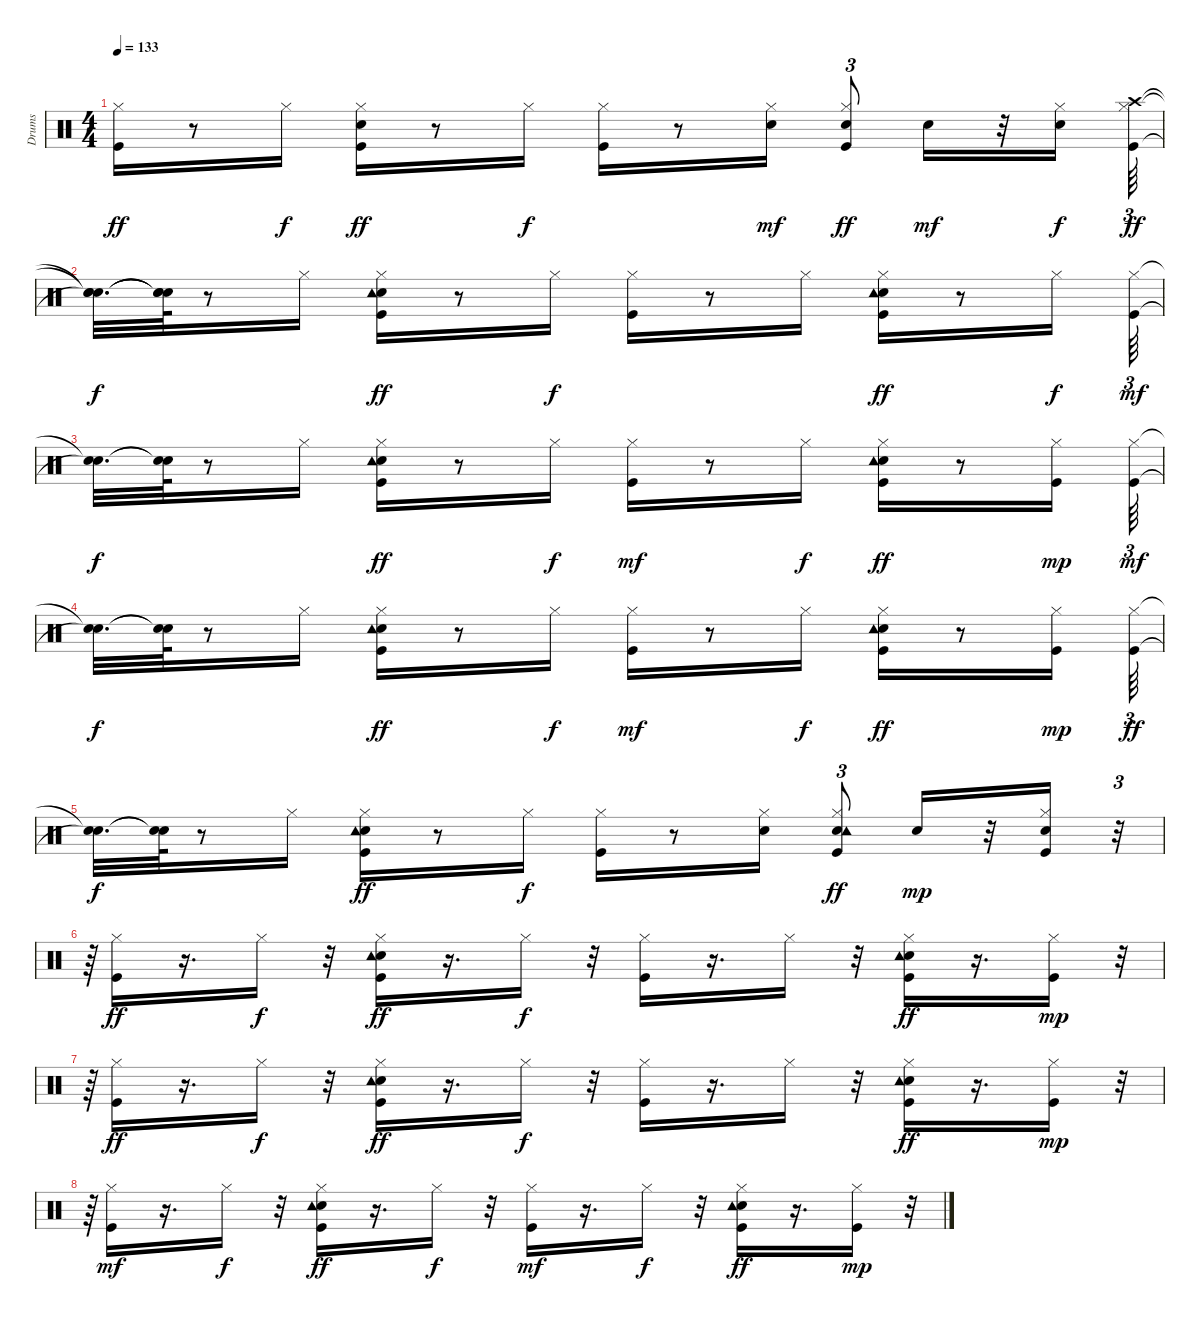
\track ("Drums   " "Drums   ") {instrument percussion}
\staff {score}
\articulation defaults
\ts (4 4)
\tempo 133
\clef neutral
\ks c
("Kick (hit)" "Hi-Hat (closed)").16{dy ff} r.8 "Hi-Hat (closed)".16{dy f} ("Kick (hit)" "Snare (hit) 2" "Hi-Hat (closed)").16{dy ff} r.8 "Hi-Hat (closed)".16{dy f} ("Kick (hit)" "Hi-Hat (closed)").16 r.8 ("Snare (hit) 2" "Hi-Hat (closed)").16{dy mf} ("Kick (hit)" "Snare (hit) 2" "Hi-Hat (closed)").8{tu (3 2) dy ff} "Snare (hit) 2".16{dy mf} r.32 ("Snare (hit) 2" "Hi-Hat (closed)").16{dy f} ("Kick (hit)" "Hi-Hat (closed)" "Crash high (hit)").64{tu (3 2) dy ff} |
("Snare (hit)"{t} "Snare (hit)"{t} "Snare (hit)"{t}).32{d dy f} ("Snare (hit)"{t} "Snare (hit)"{t} "Snare (hit)"{t}).64 r.8 "Hi-Hat (closed)".16 ("Kick (hit)" "Snare (hit) 2" "Hi-Hat (closed)" "Tambourine (hit)").16{dy ff} r.8 "Hi-Hat (closed)".16{dy f} ("Kick (hit)" "Hi-Hat (closed)").16 r.8 "Hi-Hat (closed)".16 ("Kick (hit)" "Snare (hit) 2" "Hi-Hat (closed)" "Tambourine (hit)").16{dy ff} r.8 "Hi-Hat (closed)".16{dy f} ("Kick (hit)" "Hi-Hat (closed)").64{tu (3 2) dy mf} |
("Snare (hit)"{t} "Snare (hit)"{t}).32{d dy f} ("Snare (hit)"{t} "Snare (hit)"{t}).64 r.8 "Hi-Hat (closed)".16 ("Kick (hit)" "Snare (hit) 2" "Hi-Hat (closed)" "Tambourine (hit)").16{dy ff} r.8 "Hi-Hat (closed)".16{dy f} ("Kick (hit)" "Hi-Hat (closed)").16{dy mf} r.8 "Hi-Hat (closed)".16{dy f} ("Kick (hit)" "Snare (hit) 2" "Hi-Hat (closed)" "Tambourine (hit)").16{dy ff} r.8 ("Kick (hit)" "Hi-Hat (closed)").16{dy mp} ("Kick (hit)" "Hi-Hat (closed)").64{tu (3 2) dy mf} |
("Snare (hit)"{t} "Snare (hit)"{t}).32{d dy f} ("Snare (hit)"{t} "Snare (hit)"{t}).64 r.8 "Hi-Hat (closed)".16 ("Kick (hit)" "Snare (hit) 2" "Hi-Hat (closed)" "Tambourine (hit)").16{dy ff} r.8 "Hi-Hat (closed)".16{dy f} ("Kick (hit)" "Hi-Hat (closed)").16{dy mf} r.8 "Hi-Hat (closed)".16{dy f} ("Kick (hit)" "Snare (hit) 2" "Hi-Hat (closed)" "Tambourine (hit)").16{dy ff} r.8 ("Kick (hit)" "Hi-Hat (closed)").16{dy mp} ("Kick (hit)" "Hi-Hat (closed)").64{tu (3 2) dy ff} |
("Snare (hit)"{t} "Snare (hit)"{t}).32{d dy f} ("Snare (hit)"{t} "Snare (hit)"{t}).64 r.8 "Hi-Hat (closed)".16 ("Kick (hit)" "Snare (hit) 2" "Hi-Hat (closed)" "Tambourine (hit)").16{dy ff} r.8 "Hi-Hat (closed)".16{dy f} ("Kick (hit)" "Hi-Hat (closed)").16 r.8 ("Snare (hit) 2" "Hi-Hat (closed)").16 ("Kick (hit)" "Snare (hit) 2" "Hi-Hat (closed)" "Tambourine (hit)").8{tu (3 2) dy ff} "Snare (hit) 2".16{dy mp} r.32 ("Kick (hit)" "Snare (hit) 2" "Hi-Hat (closed)").16 r.32{tu (3 2)} |
r.64{tu (3 2)} ("Kick (hit)" "Hi-Hat (closed)").16{dy ff} r.16{d} "Hi-Hat (closed)".16{dy f} r.32 ("Kick (hit)" "Snare (hit) 2" "Hi-Hat (closed)" "Tambourine (hit)").16{dy ff} r.16{d} "Hi-Hat (closed)".16{dy f} r.32 ("Kick (hit)" "Hi-Hat (closed)").16 r.16{d} "Hi-Hat (closed)".16 r.32 ("Kick (hit)" "Snare (hit) 2" "Hi-Hat (closed)" "Tambourine (hit)").16{dy ff} r.16{d} ("Kick (hit)" "Hi-Hat (closed)").16{dy mp} r.32{tu (3 2)} |
r.64{tu (3 2)} ("Kick (hit)" "Hi-Hat (closed)").16{dy ff} r.16{d} "Hi-Hat (closed)".16{dy f} r.32 ("Kick (hit)" "Snare (hit) 2" "Hi-Hat (closed)" "Tambourine (hit)").16{dy ff} r.16{d} "Hi-Hat (closed)".16{dy f} r.32 ("Kick (hit)" "Hi-Hat (closed)").16 r.16{d} "Hi-Hat (closed)".16 r.32 ("Kick (hit)" "Snare (hit) 2" "Hi-Hat (closed)" "Tambourine (hit)").16{dy ff} r.16{d} ("Kick (hit)" "Hi-Hat (closed)").16{dy mp} r.32{tu (3 2)} |
r.64{tu (3 2)} ("Kick (hit)" "Hi-Hat (closed)").16{dy mf} r.16{d} "Hi-Hat (closed)".16{dy f} r.32 ("Kick (hit)" "Snare (hit) 2" "Hi-Hat (closed)" "Tambourine (hit)").16{dy ff} r.16{d} "Hi-Hat (closed)".16{dy f} r.32 ("Kick (hit)" "Hi-Hat (closed)").16{dy mf} r.16{d} "Hi-Hat (closed)".16{dy f} r.32 ("Kick (hit)" "Snare (hit) 2" "Hi-Hat (closed)" "Tambourine (hit)").16{dy ff} r.16{d} ("Kick (hit)" "Hi-Hat (closed)").16{dy mp} r.32{tu (3 2)}
